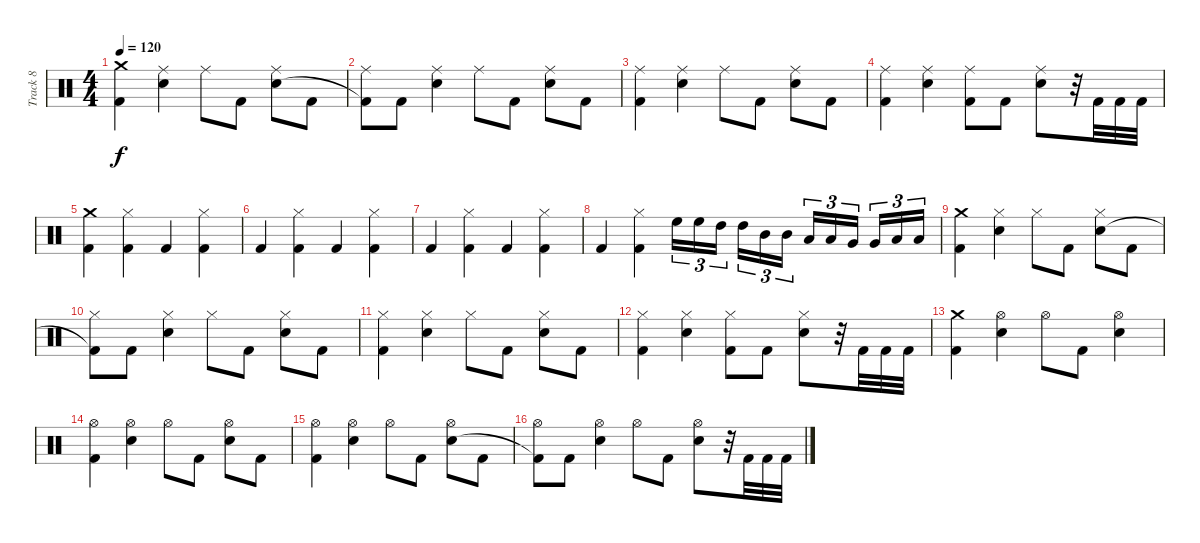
\track ("Track 8" "Track 8") {instrument percussion}
\staff {score}
\articulation defaults
\ts (4 4)
\tempo 120
\clef neutral
\ks c
("Crash medium (hit)" "Kick (hit) 2").4{dy f} ("Ride (middle)" "Electric Snare (hit)").4 "Ride (middle)".8 "Kick (hit) 2".8 ("Ride (middle)" "Electric Snare (hit)").8 "Kick (hit) 2".8 |
("Ride (middle)" "Kick (hit) 2"{t}).8 "Kick (hit) 2".8 ("Ride (middle)" "Electric Snare (hit)").4 "Ride (middle)".8 "Kick (hit) 2".8 ("Ride (middle)" "Electric Snare (hit)").8 "Kick (hit) 2".8 |
("Ride (middle)" "Kick (hit) 2").4 ("Ride (middle)" "Electric Snare (hit)").4 "Ride (middle)".8 "Kick (hit) 2".8 ("Ride (middle)" "Electric Snare (hit)").8 "Kick (hit) 2".8 |
("Ride (middle)" "Kick (hit) 2").4 ("Ride (middle)" "Electric Snare (hit)").4 ("Ride (middle)" "Kick (hit) 2").8 "Kick (hit) 2".8 ("Ride (middle)" "Electric Snare (hit)").8 r.32 "Kick (hit) 2".32 "Kick (hit) 2".32 "Kick (hit) 2".32 |
("Crash medium (hit)" "Kick (hit) 2").4 ("Hi-Hat (closed)" "Kick (hit) 2").4 "Kick (hit) 2".4 ("Hi-Hat (closed)" "Kick (hit) 2").4 |
"Kick (hit) 2".4 ("Hi-Hat (closed)" "Kick (hit) 2").4 "Kick (hit) 2".4 ("Hi-Hat (closed)" "Kick (hit) 2").4 |
"Kick (hit) 2".4 ("Hi-Hat (closed)" "Kick (hit) 2").4 "Kick (hit) 2".4 ("Hi-Hat (closed)" "Kick (hit) 2").4 |
"Kick (hit) 2".4 ("Hi-Hat (closed)" "Kick (hit) 2").4 "High Floor Tom (hit)".16{tu (3 2)} "High Floor Tom (hit)".16{tu (3 2)} "High Tom (hit)".16{tu (3 2) beam splitsecondary} "High Tom (hit)".16{tu (3 2)} "Mid Tom (hit)".16{tu (3 2)} "Mid Tom (hit)".16{tu (3 2)} "Low Tom (hit)".16{tu (3 2)} "Low Tom (hit)".16{tu (3 2)} "Very Low Tom (hit)".16{tu (3 2) beam splitsecondary} "Very Low Tom (hit)".16{tu (3 2)} "Low Floor Tom (hit)".16{tu (3 2)} "Low Floor Tom (hit)".16{tu (3 2)} |
("Crash medium (hit)" "Kick (hit) 2").4 ("Hi-Hat (closed)" "Electric Snare (hit)").4 "Hi-Hat (closed)".8 "Kick (hit) 2".8 ("Hi-Hat (closed)" "Electric Snare (hit)").8 "Kick (hit) 2".8 |
("Hi-Hat (closed)" "Kick (hit) 2"{t}).8 "Kick (hit) 2".8 ("Hi-Hat (closed)" "Electric Snare (hit)").4 "Hi-Hat (closed)".8 "Kick (hit) 2".8 ("Hi-Hat (closed)" "Electric Snare (hit)").8 "Kick (hit) 2".8 |
("Hi-Hat (closed)" "Kick (hit) 2").4 ("Hi-Hat (closed)" "Electric Snare (hit)").4 "Hi-Hat (closed)".8 "Kick (hit) 2".8 ("Hi-Hat (closed)" "Electric Snare (hit)").8 "Kick (hit) 2".8 |
("Hi-Hat (closed)" "Kick (hit) 2").4 ("Hi-Hat (closed)" "Electric Snare (hit)").4 ("Hi-Hat (closed)" "Kick (hit) 2").8 "Kick (hit) 2".8 ("Hi-Hat (closed)" "Electric Snare (hit)").8 r.32 "Kick (hit) 2".32 "Kick (hit) 2".32 "Kick (hit) 2".32 |
("Crash medium (hit)" "Kick (hit) 2").4 ("Hi-Hat (open)" "Electric Snare (hit)").4 "Hi-Hat (open)".8 "Kick (hit) 2".8 ("Hi-Hat (open)" "Electric Snare (hit)").4 |
("Hi-Hat (open)" "Kick (hit) 2").4 ("Hi-Hat (open)" "Electric Snare (hit)").4 "Hi-Hat (open)".8 "Kick (hit) 2".8 ("Hi-Hat (open)" "Electric Snare (hit)").8 "Kick (hit) 2".8 |
("Hi-Hat (open)" "Kick (hit) 2").4 ("Hi-Hat (open)" "Electric Snare (hit)").4 "Hi-Hat (open)".8 "Kick (hit) 2".8 ("Hi-Hat (open)" "Electric Snare (hit)").8 "Kick (hit) 2".8 |
("Hi-Hat (open)" "Kick (hit) 2"{t}).8 "Kick (hit) 2".8 ("Hi-Hat (open)" "Electric Snare (hit)").4 "Hi-Hat (open)".8 "Kick (hit) 2".8 ("Hi-Hat (open)" "Electric Snare (hit)").8 r.32 "Kick (hit) 2".32 "Kick (hit) 2".32 "Kick (hit) 2".32
